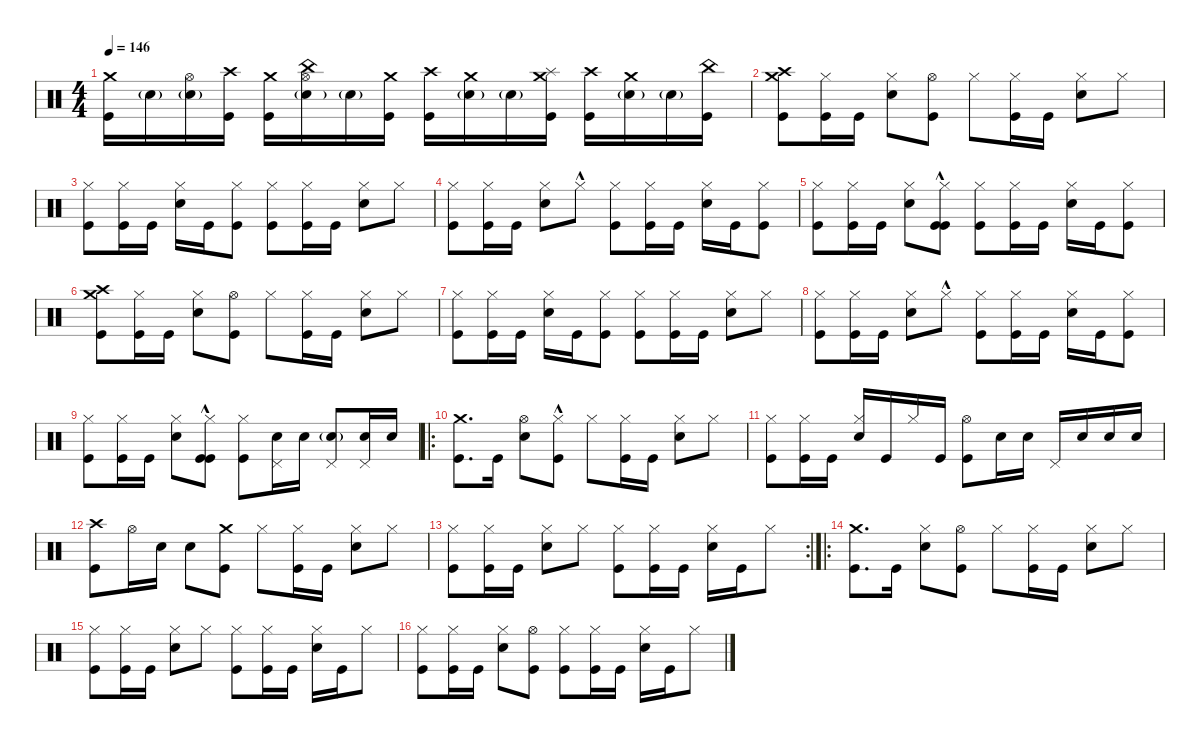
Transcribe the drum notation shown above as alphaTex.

\defaultSystemsLayout 4
\hideDynamics
\bracketExtendMode nobrackets
\singleTrackTrackNamePolicy hidden
\multiTrackTrackNamePolicy hidden
\firstSystemTrackNameMode fullname
\firstSystemTrackNameOrientation horizontal
\otherSystemsTrackNameOrientation horizontal
\track ("Drums" "drm.") {instrument percussion}
\staff {score}
\articulation defaults
\ts (4 4)
\tempo 146
\clef neutral
\ks c
("Crash medium (hit)" "Kick (hit)").16{dy f beam Down} "Snare (hit) 2"{g}.16{dy mf beam Down} ("Hi-Hat (open)" "Snare (hit) 2"{g}).16{dy f beam Down} ("Crash high (hit)" "Kick (hit)").16{beam Down} ("Crash medium (hit)" "Kick (hit)").16{beam Down} ("China (hit)" "Hi-Hat (open)" "Snare (hit) 2"{g}).16{beam Down} "Snare (hit) 2"{g}.16{dy mf beam Down} ("Crash medium (hit)" "Kick (hit)").16{dy f beam Down} ("Crash high (hit)" "Kick (hit)").16{beam Down} ("Crash medium (hit)" "Snare (hit) 2"{g}).16{beam Down} "Snare (hit) 2"{g}.16{dy mf beam Down} ("Crash medium (hit)" "Splash (hit)" "Kick (hit)").16{dy f beam Down} ("Crash high (hit)" "Kick (hit)").16{beam Down} ("Crash medium (hit)" "Snare (hit) 2"{g}).16{beam Down} "Snare (hit) 2"{g}.16{dy mf beam Down} ("China (hit)" "Kick (hit)").16{dy f beam Down} |
("Crash medium (hit)" "Crash high (hit)" "Kick (hit)").8{beam Down} ("Hi-Hat (closed)" "Kick (hit)").16{beam Down} "Kick (hit)".16{beam Down} ("Hi-Hat (closed)" "Snare (hit) 2").8{beam Down} ("Hi-Hat (open)" "Kick (hit)").8{beam Down} "Hi-Hat (closed)".8{beam Down} ("Hi-Hat (closed)" "Kick (hit)").16{beam Down} "Kick (hit)".16{beam Down} ("Hi-Hat (closed)" "Snare (hit) 2").8{beam Down} "Hi-Hat (closed)".8{beam Down} |
("Hi-Hat (closed)" "Kick (hit)").8{beam Down} ("Hi-Hat (closed)" "Kick (hit)").16{beam Down} "Kick (hit)".16{beam Down} ("Hi-Hat (closed)" "Snare (hit) 2").16{beam Down} "Kick (hit)".16{beam Down} ("Hi-Hat (closed)" "Kick (hit)").8{beam Down} ("Hi-Hat (closed)" "Kick (hit)").8{beam Down} ("Hi-Hat (closed)" "Kick (hit)").16{beam Down} "Kick (hit)".16{beam Down} ("Hi-Hat (closed)" "Snare (hit) 2").8{beam Down} "Hi-Hat (closed)".8{beam Down} |
("Hi-Hat (closed)" "Kick (hit)").8{beam Down} ("Hi-Hat (closed)" "Kick (hit)").16{beam Down} "Kick (hit)".16{beam Down} ("Hi-Hat (closed)" "Snare (hit) 2").8{beam Down} "Hi-Hat (closed)"{hac}.8{beam Down} ("Hi-Hat (closed)" "Kick (hit)").8{beam Down} ("Hi-Hat (closed)" "Kick (hit)").16{beam Down} "Kick (hit)".16{beam Down} ("Hi-Hat (closed)" "Snare (hit) 2").16{beam Down} "Kick (hit)".16{beam Down} ("Hi-Hat (closed)" "Kick (hit)").8{beam Down} |
("Hi-Hat (closed)" "Kick (hit)").8{beam Down} ("Hi-Hat (closed)" "Kick (hit)").16{beam Down} "Kick (hit)".16{beam Down} ("Hi-Hat (closed)" "Snare (hit) 2").8{beam Down} ("Hi-Hat (closed)"{hac} "Kick (hit)"{hac} "Kick (hit)"{hac}).8{beam Down} ("Hi-Hat (closed)" "Kick (hit)").8{beam Down} ("Hi-Hat (closed)" "Kick (hit)").16{beam Down} "Kick (hit)".16{beam Down} ("Hi-Hat (closed)" "Snare (hit) 2").16{beam Down} "Kick (hit)".16{beam Down} ("Hi-Hat (closed)" "Kick (hit)").8{beam Down} |
("Crash medium (hit)" "Crash high (hit)" "Kick (hit)").8{beam Down} ("Hi-Hat (closed)" "Kick (hit)").16{beam Down} "Kick (hit)".16{beam Down} ("Hi-Hat (closed)" "Snare (hit) 2").8{beam Down} ("Hi-Hat (open)" "Kick (hit)").8{beam Down} "Hi-Hat (closed)".8{beam Down} ("Hi-Hat (closed)" "Kick (hit)").16{beam Down} "Kick (hit)".16{beam Down} ("Hi-Hat (closed)" "Snare (hit) 2").8{beam Down} "Hi-Hat (closed)".8{beam Down} |
("Hi-Hat (closed)" "Kick (hit)").8{beam Down} ("Hi-Hat (closed)" "Kick (hit)").16{beam Down} "Kick (hit)".16{beam Down} ("Hi-Hat (closed)" "Snare (hit) 2").16{beam Down} "Kick (hit)".16{beam Down} ("Hi-Hat (closed)" "Kick (hit)").8{beam Down} ("Hi-Hat (closed)" "Kick (hit)").8{beam Down} ("Hi-Hat (closed)" "Kick (hit)").16{beam Down} "Kick (hit)".16{beam Down} ("Hi-Hat (closed)" "Snare (hit) 2").8{beam Down} "Hi-Hat (closed)".8{beam Down} |
("Hi-Hat (closed)" "Kick (hit)").8{beam Down} ("Hi-Hat (closed)" "Kick (hit)").16{beam Down} "Kick (hit)".16{beam Down} ("Hi-Hat (closed)" "Snare (hit) 2").8{beam Down} "Hi-Hat (closed)"{hac}.8{beam Down} ("Hi-Hat (closed)" "Kick (hit)").8{beam Down} ("Hi-Hat (closed)" "Kick (hit)").16{beam Down} "Kick (hit)".16{beam Down} ("Hi-Hat (closed)" "Snare (hit) 2").16{beam Down} "Kick (hit)".16{beam Down} ("Hi-Hat (closed)" "Kick (hit)").8{beam Down} |
("Hi-Hat (closed)" "Kick (hit)").8{beam Down} ("Hi-Hat (closed)" "Kick (hit)").16{beam Down} "Kick (hit)".16{beam Down} ("Hi-Hat (closed)" "Snare (hit) 2").8{beam Down} ("Hi-Hat (closed)"{hac} "Kick (hit)"{hac} "Kick (hit)"{hac}).8{beam Down} ("Hi-Hat (closed)" "Kick (hit)").8{beam Down} ("Pedal Hi-Hat (hit)" "Snare (hit) 2").16{beam Down} "Snare (hit) 2".16{beam Down} ("Pedal Hi-Hat (hit)" "Snare (hit) 2"{g}).8{beam Up} ("Pedal Hi-Hat (hit)" "Snare (hit) 2").16{beam Up} "Snare (hit) 2".16{beam Up} |
\ro
("Crash medium (hit)" "Kick (hit)").8{d beam Down} "Kick (hit)".16{beam Down} ("Hi-Hat (open)" "Snare (hit) 2").8{beam Down} ("Hi-Hat (closed)"{hac} "Kick (hit)"{hac}).8{beam Down} "Hi-Hat (closed)".8{beam Down} ("Hi-Hat (closed)" "Kick (hit)").16{beam Down} "Kick (hit)".16{beam Down} ("Hi-Hat (closed)" "Snare (hit) 2").8{beam Down} "Hi-Hat (closed)".8{beam Down} |
("Hi-Hat (closed)" "Kick (hit)").8{beam Down} ("Hi-Hat (closed)" "Kick (hit)").16{beam Down} "Kick (hit)".16{beam Down} ("Hi-Hat (closed)" "Snare (hit) 2").16{beam Up} "Kick (hit)".16{beam Up} "Hi-Hat (closed)".16{beam Up} "Kick (hit)".16{beam Up} ("Hi-Hat (open)" "Kick (hit)").8{beam Down} "Snare (hit) 2".16{beam Down} "Snare (hit) 2".16{beam Down} "Pedal Hi-Hat (hit)".16{beam Up} "Snare (hit) 2".16{beam Up} "Snare (hit) 2".16{beam Up} "Snare (hit) 2".16{beam Up} |
("Crash high (hit)" "Kick (hit)").8{beam Down} "Hi-Hat (open)".16{beam Down} "Snare (hit) 2".16{beam Down} "Snare (hit) 2".8{beam Down} ("Crash medium (hit)" "Kick (hit)").8{beam Down} "Hi-Hat (closed)".8{beam Down} ("Hi-Hat (closed)" "Kick (hit)").16{beam Down} "Kick (hit)".16{beam Down} ("Hi-Hat (closed)" "Snare (hit) 2").8{beam Down} "Hi-Hat (closed)".8{beam Down} |
\rc 2
("Hi-Hat (closed)" "Kick (hit)").8{beam Down} ("Hi-Hat (closed)" "Kick (hit)").16{beam Down} "Kick (hit)".16{beam Down} ("Hi-Hat (closed)" "Snare (hit) 2").8{beam Down} "Hi-Hat (closed)".8{beam Down} ("Hi-Hat (closed)" "Kick (hit)").8{beam Down} ("Hi-Hat (closed)" "Kick (hit)").16{beam Down} "Kick (hit)".16{beam Down} ("Hi-Hat (closed)" "Snare (hit) 2").16{beam Down} "Kick (hit)".16{beam Down} "Hi-Hat (closed)".8{beam Down} |
\ro
("Crash medium (hit)" "Kick (hit)").8{d beam Down} "Kick (hit)".16{beam Down} ("Hi-Hat (closed)" "Snare (hit) 2").8{beam Down} ("Hi-Hat (open)" "Kick (hit)").8{beam Down} "Hi-Hat (closed)".8{beam Down} ("Hi-Hat (closed)" "Kick (hit)").16{beam Down} "Kick (hit)".16{beam Down} ("Hi-Hat (closed)" "Snare (hit) 2").8{beam Down} "Hi-Hat (closed)".8{beam Down} |
("Hi-Hat (closed)" "Kick (hit)").8{beam Down} ("Hi-Hat (closed)" "Kick (hit)").16{beam Down} "Kick (hit)".16{beam Down} ("Hi-Hat (closed)" "Snare (hit) 2").8{beam Down} "Hi-Hat (closed)".8{beam Down} ("Hi-Hat (closed)" "Kick (hit)").8{beam Down} ("Hi-Hat (closed)" "Kick (hit)").16{beam Down} "Kick (hit)".16{beam Down} ("Hi-Hat (closed)" "Snare (hit) 2").16{beam Down} "Kick (hit)".16{beam Down} "Hi-Hat (closed)".8{beam Down} |
("Hi-Hat (closed)" "Kick (hit)").8{beam Down} ("Hi-Hat (closed)" "Kick (hit)").16{beam Down} "Kick (hit)".16{beam Down} ("Hi-Hat (closed)" "Snare (hit) 2").8{beam Down} ("Hi-Hat (open)" "Kick (hit)").8{beam Down} ("Hi-Hat (closed)" "Kick (hit)").8{beam Down} ("Hi-Hat (closed)" "Kick (hit)").16{beam Down} "Kick (hit)".16{beam Down} ("Hi-Hat (closed)" "Snare (hit) 2").16{beam Down} "Kick (hit)".16{beam Down} "Hi-Hat (closed)".8{beam Down}
